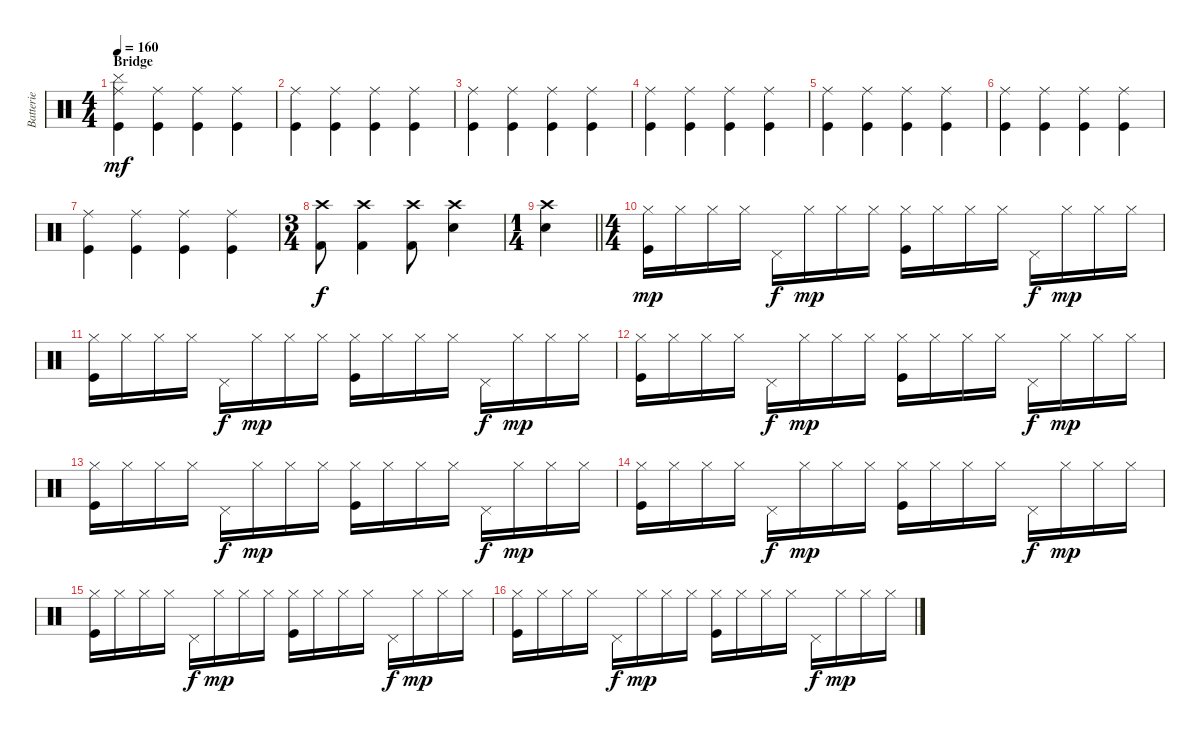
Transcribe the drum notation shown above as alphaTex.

\track ("Batterie" "Batterie") {instrument percussion}
\staff {score}
\articulation defaults
\ts (4 4)
\section ("" "Bridge")
\tempo 160
\clef neutral
\ks c
("Kick (hit)" "Ride (middle)" "Cymbal (hit)").4{dy mf} ("Kick (hit)" "Ride (middle)").4 ("Kick (hit)" "Ride (middle)").4 ("Kick (hit)" "Ride (middle)").4 |
("Kick (hit)" "Ride (middle)").4 ("Kick (hit)" "Ride (middle)").4 ("Kick (hit)" "Ride (middle)").4 ("Kick (hit)" "Ride (middle)").4 |
("Kick (hit)" "Ride (middle)").4 ("Kick (hit)" "Ride (middle)").4 ("Kick (hit)" "Ride (middle)").4 ("Kick (hit)" "Ride (middle)").4 |
("Kick (hit)" "Ride (middle)").4 ("Kick (hit)" "Ride (middle)").4 ("Kick (hit)" "Ride (middle)").4 ("Kick (hit)" "Ride (middle)").4 |
("Kick (hit)" "Ride (middle)").4 ("Kick (hit)" "Ride (middle)").4 ("Kick (hit)" "Ride (middle)").4 ("Kick (hit)" "Ride (middle)").4 |
("Kick (hit)" "Ride (middle)").4 ("Kick (hit)" "Ride (middle)").4 ("Kick (hit)" "Ride (middle)").4 ("Kick (hit)" "Ride (middle)").4 |
("Kick (hit)" "Ride (middle)").4 ("Kick (hit)" "Ride (middle)").4 ("Kick (hit)" "Ride (middle)").4 ("Kick (hit)" "Ride (middle)").4 |
\ts (3 4)
("Crash high (hit)" "Kick (hit) 2").8{dy f} ("Crash high (hit)" "Kick (hit) 2").4 ("Crash high (hit)" "Kick (hit) 2").8 ("Crash high (hit)" "Snare (hit) 2").4 |
\ts (1 4)
\barLineRight lightlight
("Crash high (hit)" "Snare (hit) 2").4 |
\ts (4 4)
("Kick (hit)" "Hi-Hat (closed)").16{dy mp} "Hi-Hat (closed)".16 "Hi-Hat (closed)".16 "Hi-Hat (closed)".16 "Pedal Hi-Hat (hit)".16{dy f} "Hi-Hat (closed)".16{dy mp} "Hi-Hat (closed)".16 "Hi-Hat (closed)".16 ("Kick (hit)" "Hi-Hat (closed)").16 "Hi-Hat (closed)".16 "Hi-Hat (closed)".16 "Hi-Hat (closed)".16 "Pedal Hi-Hat (hit)".16{dy f} "Hi-Hat (closed)".16{dy mp} "Hi-Hat (closed)".16 "Hi-Hat (closed)".16 |
("Kick (hit)" "Hi-Hat (closed)").16 "Hi-Hat (closed)".16 "Hi-Hat (closed)".16 "Hi-Hat (closed)".16 "Pedal Hi-Hat (hit)".16{dy f} "Hi-Hat (closed)".16{dy mp} "Hi-Hat (closed)".16 "Hi-Hat (closed)".16 ("Kick (hit)" "Hi-Hat (closed)").16 "Hi-Hat (closed)".16 "Hi-Hat (closed)".16 "Hi-Hat (closed)".16 "Pedal Hi-Hat (hit)".16{dy f} "Hi-Hat (closed)".16{dy mp} "Hi-Hat (closed)".16 "Hi-Hat (closed)".16 |
("Kick (hit)" "Hi-Hat (closed)").16 "Hi-Hat (closed)".16 "Hi-Hat (closed)".16 "Hi-Hat (closed)".16 "Pedal Hi-Hat (hit)".16{dy f} "Hi-Hat (closed)".16{dy mp} "Hi-Hat (closed)".16 "Hi-Hat (closed)".16 ("Kick (hit)" "Hi-Hat (closed)").16 "Hi-Hat (closed)".16 "Hi-Hat (closed)".16 "Hi-Hat (closed)".16 "Pedal Hi-Hat (hit)".16{dy f} "Hi-Hat (closed)".16{dy mp} "Hi-Hat (closed)".16 "Hi-Hat (closed)".16 |
("Kick (hit)" "Hi-Hat (closed)").16 "Hi-Hat (closed)".16 "Hi-Hat (closed)".16 "Hi-Hat (closed)".16 "Pedal Hi-Hat (hit)".16{dy f} "Hi-Hat (closed)".16{dy mp} "Hi-Hat (closed)".16 "Hi-Hat (closed)".16 ("Kick (hit)" "Hi-Hat (closed)").16 "Hi-Hat (closed)".16 "Hi-Hat (closed)".16 "Hi-Hat (closed)".16 "Pedal Hi-Hat (hit)".16{dy f} "Hi-Hat (closed)".16{dy mp} "Hi-Hat (closed)".16 "Hi-Hat (closed)".16 |
("Kick (hit)" "Hi-Hat (closed)").16 "Hi-Hat (closed)".16 "Hi-Hat (closed)".16 "Hi-Hat (closed)".16 "Pedal Hi-Hat (hit)".16{dy f} "Hi-Hat (closed)".16{dy mp} "Hi-Hat (closed)".16 "Hi-Hat (closed)".16 ("Kick (hit)" "Hi-Hat (closed)").16 "Hi-Hat (closed)".16 "Hi-Hat (closed)".16 "Hi-Hat (closed)".16 "Pedal Hi-Hat (hit)".16{dy f} "Hi-Hat (closed)".16{dy mp} "Hi-Hat (closed)".16 "Hi-Hat (closed)".16 |
("Kick (hit)" "Hi-Hat (closed)").16 "Hi-Hat (closed)".16 "Hi-Hat (closed)".16 "Hi-Hat (closed)".16 "Pedal Hi-Hat (hit)".16{dy f} "Hi-Hat (closed)".16{dy mp} "Hi-Hat (closed)".16 "Hi-Hat (closed)".16 ("Kick (hit)" "Hi-Hat (closed)").16 "Hi-Hat (closed)".16 "Hi-Hat (closed)".16 "Hi-Hat (closed)".16 "Pedal Hi-Hat (hit)".16{dy f} "Hi-Hat (closed)".16{dy mp} "Hi-Hat (closed)".16 "Hi-Hat (closed)".16 |
("Kick (hit)" "Hi-Hat (closed)").16 "Hi-Hat (closed)".16 "Hi-Hat (closed)".16 "Hi-Hat (closed)".16 "Pedal Hi-Hat (hit)".16{dy f} "Hi-Hat (closed)".16{dy mp} "Hi-Hat (closed)".16 "Hi-Hat (closed)".16 ("Kick (hit)" "Hi-Hat (closed)").16 "Hi-Hat (closed)".16 "Hi-Hat (closed)".16 "Hi-Hat (closed)".16 "Pedal Hi-Hat (hit)".16{dy f} "Hi-Hat (closed)".16{dy mp} "Hi-Hat (closed)".16 "Hi-Hat (closed)".16
